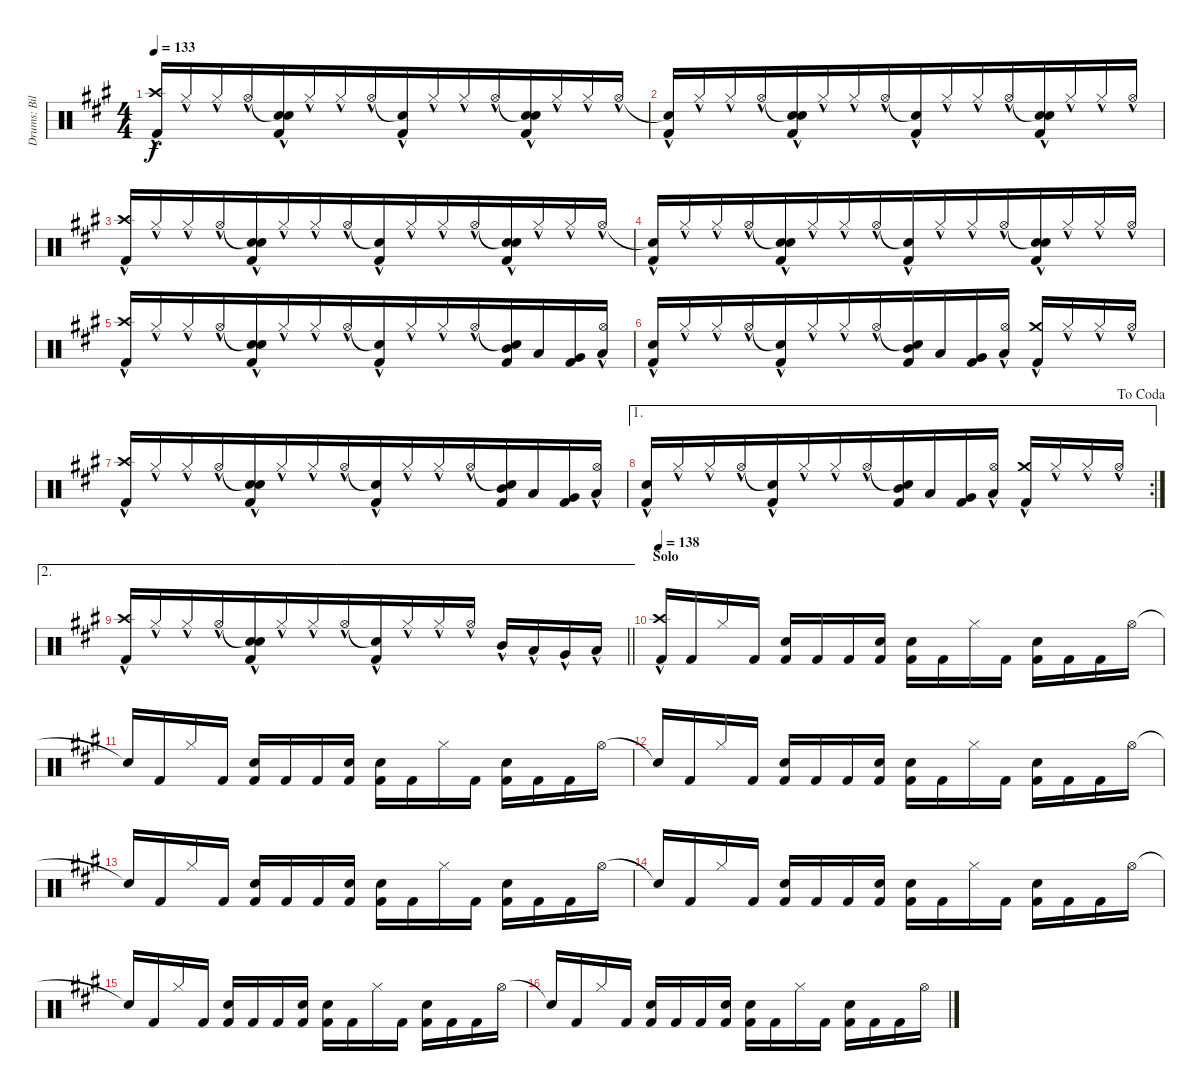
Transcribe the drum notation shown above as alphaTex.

\track ("Drums: Bill" "Drums: Bil") {instrument percussion}
\staff {score}
\articulation defaults
\ts (4 4)
\tempo 133
\clef neutral
\ks a
("Crash high (hit)"{hac} "Kick (hit) 2"{hac}).16{dy f beam Up beam merge} "Hi-Hat (closed)"{hac}.16{beam Up beam merge} "Hi-Hat (closed)"{hac}.16{beam Up beam merge} "Hi-Hat (open)"{hac}.16{beam Up beam merge} ("Snare (hit)"{t} "Electric Snare (hit)"{hac} "Kick (hit) 2"{hac}).16{beam Up beam merge} "Hi-Hat (closed)"{hac}.16{beam Up beam merge} "Hi-Hat (closed)"{hac}.16{beam Up beam merge} "Hi-Hat (open)"{hac}.16{beam Up beam merge} ("Snare (hit)"{t} "Kick (hit) 2"{hac}).16{beam Up beam merge} "Hi-Hat (closed)"{hac}.16{beam Up beam merge} "Hi-Hat (closed)"{hac}.16{beam Up beam merge} "Hi-Hat (open)"{hac}.16{beam Up beam merge} ("Snare (hit)"{t} "Electric Snare (hit)"{hac} "Kick (hit) 2"{hac}).16{beam Up beam merge} "Hi-Hat (closed)"{hac}.16{beam Up beam merge} "Hi-Hat (closed)"{hac}.16{beam Up beam merge} "Hi-Hat (open)"{hac}.16{beam Up} |
("Snare (hit)"{t} "Kick (hit) 2"{hac}).16{beam Up beam merge} "Hi-Hat (closed)"{hac}.16{beam Up beam merge} "Hi-Hat (closed)"{hac}.16{beam Up beam merge} "Hi-Hat (open)"{hac}.16{beam Up beam merge} ("Snare (hit)"{t} "Electric Snare (hit)"{hac} "Kick (hit) 2"{hac}).16{beam Up beam merge} "Hi-Hat (closed)"{hac}.16{beam Up beam merge} "Hi-Hat (closed)"{hac}.16{beam Up beam merge} "Hi-Hat (open)"{hac}.16{beam Up beam merge} ("Snare (hit)"{t} "Kick (hit) 2"{hac}).16{beam Up beam merge} "Hi-Hat (closed)"{hac}.16{beam Up beam merge} "Hi-Hat (closed)"{hac}.16{beam Up beam merge} "Hi-Hat (open)"{hac}.16{beam Up beam merge} ("Snare (hit)"{t} "Electric Snare (hit)" "Kick (hit) 2"{hac}).16{beam Up beam merge} "Hi-Hat (closed)"{hac}.16{beam Up beam merge} "Hi-Hat (closed)"{hac}.16{beam Up beam merge} "Hi-Hat (open)"{hac}.16{beam Up} |
("Crash high (hit)"{hac} "Kick (hit) 2"{hac}).16{beam Up beam merge} "Hi-Hat (closed)"{hac}.16{beam Up beam merge} "Hi-Hat (closed)"{hac}.16{beam Up beam merge} "Hi-Hat (open)"{hac}.16{beam Up beam merge} ("Snare (hit)"{t} "Electric Snare (hit)"{hac} "Kick (hit) 2"{hac}).16{beam Up beam merge} "Hi-Hat (closed)"{hac}.16{beam Up beam merge} "Hi-Hat (closed)"{hac}.16{beam Up beam merge} "Hi-Hat (open)"{hac}.16{beam Up beam merge} ("Snare (hit)"{t} "Kick (hit) 2"{hac}).16{beam Up beam merge} "Hi-Hat (closed)"{hac}.16{beam Up beam merge} "Hi-Hat (closed)"{hac}.16{beam Up beam merge} "Hi-Hat (open)"{hac}.16{beam Up beam merge} ("Snare (hit)"{t} "Electric Snare (hit)"{hac} "Kick (hit) 2"{hac}).16{beam Up beam merge} "Hi-Hat (closed)"{hac}.16{beam Up beam merge} "Hi-Hat (closed)"{hac}.16{beam Up beam merge} "Hi-Hat (open)"{hac}.16{beam Up} |
("Snare (hit)"{t} "Kick (hit) 2"{hac}).16{beam Up beam merge} "Hi-Hat (closed)"{hac}.16{beam Up beam merge} "Hi-Hat (closed)"{hac}.16{beam Up beam merge} "Hi-Hat (open)"{hac}.16{beam Up beam merge} ("Snare (hit)"{t} "Electric Snare (hit)"{hac} "Kick (hit) 2"{hac}).16{beam Up beam merge} "Hi-Hat (closed)"{hac}.16{beam Up beam merge} "Hi-Hat (closed)"{hac}.16{beam Up beam merge} "Hi-Hat (open)"{hac}.16{beam Up beam merge} ("Snare (hit)"{t} "Kick (hit) 2"{hac}).16{beam Up beam merge} "Hi-Hat (closed)"{hac}.16{beam Up beam merge} "Hi-Hat (closed)"{hac}.16{beam Up beam merge} "Hi-Hat (open)"{hac}.16{beam Up beam merge} ("Snare (hit)"{t} "Electric Snare (hit)" "Kick (hit) 2"{hac}).16{beam Up beam merge} "Hi-Hat (closed)"{hac}.16{beam Up beam merge} "Hi-Hat (closed)"{hac}.16{beam Up beam merge} "Hi-Hat (open)"{hac}.16{beam Up} |
("Crash high (hit)"{hac} "Kick (hit) 2"{hac}).16{beam Up beam merge} "Hi-Hat (closed)"{hac}.16{beam Up beam merge} "Hi-Hat (closed)"{hac}.16{beam Up beam merge} "Hi-Hat (open)"{hac}.16{beam Up beam merge} ("Snare (hit)"{t} "Electric Snare (hit)"{hac} "Kick (hit) 2"{hac}).16{beam Up beam merge} "Hi-Hat (closed)"{hac}.16{beam Up beam merge} "Hi-Hat (closed)"{hac}.16{beam Up beam merge} "Hi-Hat (open)"{hac}.16{beam Up beam merge} ("Snare (hit)"{t} "Kick (hit) 2"{hac}).16{beam Up beam merge} "Hi-Hat (closed)"{hac}.16{beam Up beam merge} "Hi-Hat (closed)"{hac}.16{beam Up beam merge} "Hi-Hat (open)"{hac}.16{beam Up beam merge} ("Snare (hit)"{t} "Mid Tom (hit)" "Kick (hit) 2").16{beam Up beam merge} "Low Tom (hit)".16{beam Up beam merge} ("Very Low Tom (hit)" "Kick (hit) 2").16{beam Up beam merge} ("Hi-Hat (open)"{hac} "Low Floor Tom (hit)").16{beam Up} |
("Electric Snare (hit)"{hac} "Kick (hit) 2"{hac}).16{beam Up beam merge} "Hi-Hat (closed)"{hac}.16{beam Up beam merge} "Hi-Hat (closed)"{hac}.16{beam Up beam merge} "Hi-Hat (open)"{hac}.16{beam Up beam merge} ("Snare (hit)"{t} "Kick (hit) 2"{hac}).16{beam Up beam merge} "Hi-Hat (closed)"{hac}.16{beam Up beam merge} "Hi-Hat (closed)"{hac}.16{beam Up beam merge} "Hi-Hat (open)"{hac}.16{beam Up beam merge} ("Snare (hit)"{t} "Mid Tom (hit)" "Kick (hit) 2").16{beam Up beam merge} "Low Tom (hit)".16{beam Up beam merge} ("Very Low Tom (hit)" "Kick (hit) 2").16{beam Up beam merge} ("Hi-Hat (open)"{hac} "Low Floor Tom (hit)").16{beam Up} ("Crash medium (hit)"{hac} "Kick (hit) 2"{hac}).16{beam Up beam merge} "Hi-Hat (closed)"{hac}.16{beam Up beam merge} "Hi-Hat (closed)"{hac}.16{beam Up beam merge} "Hi-Hat (open)"{hac}.16{beam Up} |
("Crash high (hit)"{hac} "Kick (hit) 2"{hac}).16{beam Up beam merge} "Hi-Hat (closed)"{hac}.16{beam Up beam merge} "Hi-Hat (closed)"{hac}.16{beam Up beam merge} "Hi-Hat (open)"{hac}.16{beam Up beam merge} ("Snare (hit)"{t} "Electric Snare (hit)"{hac} "Kick (hit) 2"{hac}).16{beam Up beam merge} "Hi-Hat (closed)"{hac}.16{beam Up beam merge} "Hi-Hat (closed)"{hac}.16{beam Up beam merge} "Hi-Hat (open)"{hac}.16{beam Up beam merge} ("Snare (hit)"{t} "Kick (hit) 2"{hac}).16{beam Up beam merge} "Hi-Hat (closed)"{hac}.16{beam Up beam merge} "Hi-Hat (closed)"{hac}.16{beam Up beam merge} "Hi-Hat (open)"{hac}.16{beam Up beam merge} ("Snare (hit)"{t} "Mid Tom (hit)" "Kick (hit) 2").16{beam Up beam merge} "Low Tom (hit)".16{beam Up beam merge} ("Very Low Tom (hit)" "Kick (hit) 2").16{beam Up beam merge} ("Hi-Hat (open)"{hac} "Low Floor Tom (hit)").16{beam Up} |
\ae 1
\rc 2
\jump dacoda
("Electric Snare (hit)"{hac} "Kick (hit) 2"{hac}).16{beam Up beam merge} "Hi-Hat (closed)"{hac}.16{beam Up beam merge} "Hi-Hat (closed)"{hac}.16{beam Up beam merge} "Hi-Hat (open)"{hac}.16{beam Up beam merge} ("Snare (hit)"{t} "Kick (hit) 2"{hac}).16{beam Up beam merge} "Hi-Hat (closed)"{hac}.16{beam Up beam merge} "Hi-Hat (closed)"{hac}.16{beam Up beam merge} "Hi-Hat (open)"{hac}.16{beam Up beam merge} ("Snare (hit)"{t} "Mid Tom (hit)" "Kick (hit) 2").16{beam Up beam merge} "Low Tom (hit)".16{beam Up beam merge} ("Very Low Tom (hit)" "Kick (hit) 2").16{beam Up beam merge} ("Hi-Hat (open)"{hac} "Low Floor Tom (hit)").16{beam Up} ("Crash medium (hit)"{hac} "Kick (hit) 2"{hac}).16{beam Up beam merge} "Hi-Hat (closed)"{hac}.16{beam Up beam merge} "Hi-Hat (closed)"{hac}.16{beam Up beam merge} "Hi-Hat (open)"{hac}.16{beam Up} |
\ae 2
\barLineRight lightlight
("Crash high (hit)"{hac} "Kick (hit) 2"{hac}).16{beam Up beam merge} "Hi-Hat (closed)"{hac}.16{beam Up beam merge} "Hi-Hat (closed)"{hac}.16{beam Up beam merge} "Hi-Hat (open)"{hac}.16{beam Up beam merge} ("Snare (hit)"{t} "Electric Snare (hit)"{hac} "Kick (hit) 2"{hac}).16{beam Up beam merge} "Hi-Hat (closed)"{hac}.16{beam Up beam merge} "Hi-Hat (closed)"{hac}.16{beam Up beam merge} "Hi-Hat (open)"{hac}.16{beam Up beam merge} ("Snare (hit)"{t} "Kick (hit) 2"{hac}).16{beam Up beam merge} "Hi-Hat (closed)"{hac}.16{beam Up beam merge} "Hi-Hat (closed)"{hac}.16{beam Up beam merge} "Hi-Hat (open)"{hac}.16{beam Up} "Mid Tom (hit)"{hac}.16 "Low Tom (hit)"{hac}.16 "Very Low Tom (hit)"{hac}.16 "Low Floor Tom (hit)"{hac}.16 |
\section ("" "Solo")
\tempo 138
("Crash high (hit)"{hac} "Kick (hit) 2"{hac}).16{beam Up} "Kick (hit) 2".16 "Hi-Hat (closed)".16 "Kick (hit) 2".16 ("Electric Snare (hit)" "Kick (hit) 2").16 "Kick (hit) 2".16 "Kick (hit) 2".16 ("Electric Snare (hit)" "Kick (hit) 2").16 ("Electric Snare (hit)" "Kick (hit) 2").16 "Kick (hit) 2".16 "Hi-Hat (closed)".16 "Kick (hit) 2".16 ("Electric Snare (hit)" "Kick (hit) 2").16 "Kick (hit) 2".16 "Kick (hit) 2".16 "Hi-Hat (open)".16 |
"Snare (hit)"{t}.16{beam Up} "Kick (hit) 2".16 "Hi-Hat (closed)".16 "Kick (hit) 2".16 ("Electric Snare (hit)" "Kick (hit) 2").16 "Kick (hit) 2".16 "Kick (hit) 2".16 ("Electric Snare (hit)" "Kick (hit) 2").16 ("Electric Snare (hit)" "Kick (hit) 2").16 "Kick (hit) 2".16 "Hi-Hat (closed)".16 "Kick (hit) 2".16 ("Electric Snare (hit)" "Kick (hit) 2").16 "Kick (hit) 2".16 "Kick (hit) 2".16 "Hi-Hat (open)".16 |
"Snare (hit)"{t}.16{beam Up} "Kick (hit) 2".16 "Hi-Hat (closed)".16 "Kick (hit) 2".16 ("Electric Snare (hit)" "Kick (hit) 2").16 "Kick (hit) 2".16 "Kick (hit) 2".16 ("Electric Snare (hit)" "Kick (hit) 2").16 ("Electric Snare (hit)" "Kick (hit) 2").16 "Kick (hit) 2".16 "Hi-Hat (closed)".16 "Kick (hit) 2".16 ("Electric Snare (hit)" "Kick (hit) 2").16 "Kick (hit) 2".16 "Kick (hit) 2".16 "Hi-Hat (open)".16 |
"Snare (hit)"{t}.16{beam Up} "Kick (hit) 2".16 "Hi-Hat (closed)".16 "Kick (hit) 2".16 ("Electric Snare (hit)" "Kick (hit) 2").16 "Kick (hit) 2".16 "Kick (hit) 2".16 ("Electric Snare (hit)" "Kick (hit) 2").16 ("Electric Snare (hit)" "Kick (hit) 2").16 "Kick (hit) 2".16 "Hi-Hat (closed)".16 "Kick (hit) 2".16 ("Electric Snare (hit)" "Kick (hit) 2").16 "Kick (hit) 2".16 "Kick (hit) 2".16 "Hi-Hat (open)".16 |
"Snare (hit)"{t}.16{beam Up} "Kick (hit) 2".16 "Hi-Hat (closed)".16 "Kick (hit) 2".16 ("Electric Snare (hit)" "Kick (hit) 2").16 "Kick (hit) 2".16 "Kick (hit) 2".16 ("Electric Snare (hit)" "Kick (hit) 2").16 ("Electric Snare (hit)" "Kick (hit) 2").16 "Kick (hit) 2".16 "Hi-Hat (closed)".16 "Kick (hit) 2".16 ("Electric Snare (hit)" "Kick (hit) 2").16 "Kick (hit) 2".16 "Kick (hit) 2".16 "Hi-Hat (open)".16 |
"Snare (hit)"{t}.16{beam Up} "Kick (hit) 2".16 "Hi-Hat (closed)".16 "Kick (hit) 2".16 ("Electric Snare (hit)" "Kick (hit) 2").16 "Kick (hit) 2".16 "Kick (hit) 2".16 ("Electric Snare (hit)" "Kick (hit) 2").16 ("Electric Snare (hit)" "Kick (hit) 2").16 "Kick (hit) 2".16 "Hi-Hat (closed)".16 "Kick (hit) 2".16 ("Electric Snare (hit)" "Kick (hit) 2").16 "Kick (hit) 2".16 "Kick (hit) 2".16 "Hi-Hat (open)".16 |
"Snare (hit)"{t}.16{beam Up} "Kick (hit) 2".16 "Hi-Hat (closed)".16 "Kick (hit) 2".16 ("Electric Snare (hit)" "Kick (hit) 2").16 "Kick (hit) 2".16 "Kick (hit) 2".16 ("Electric Snare (hit)" "Kick (hit) 2").16 ("Electric Snare (hit)" "Kick (hit) 2").16 "Kick (hit) 2".16 "Hi-Hat (closed)".16 "Kick (hit) 2".16 ("Electric Snare (hit)" "Kick (hit) 2").16 "Kick (hit) 2".16 "Kick (hit) 2".16 "Hi-Hat (open)".16
